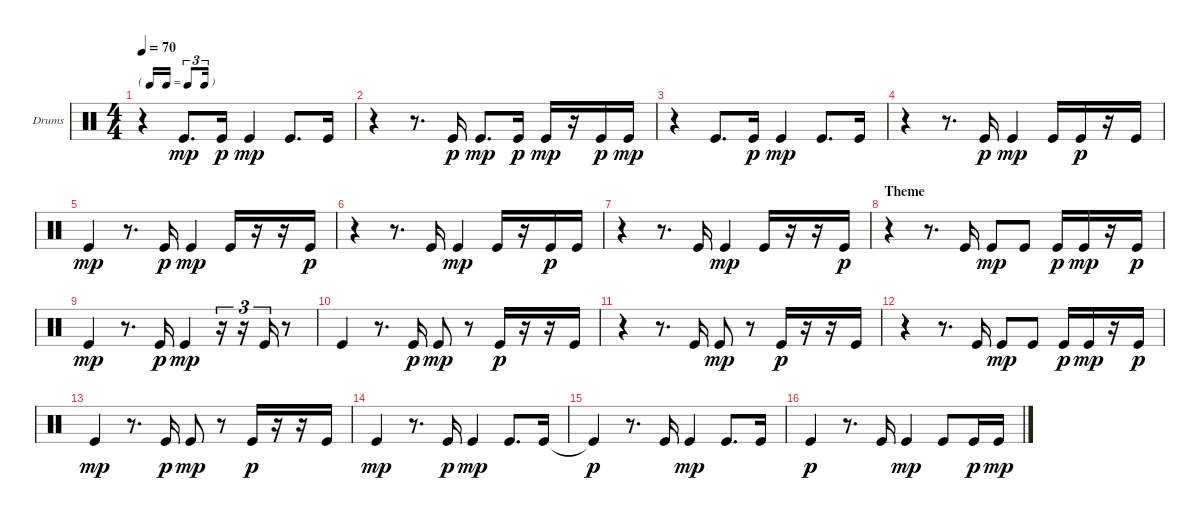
\bracketExtendMode groupsimilarinstruments
\firstSystemTrackNameOrientation horizontal
\otherSystemsTrackNameOrientation horizontal
\track ("Kick" "Drums") {instrument percussion}
\staff {score}
\articulation defaults
\ts (4 4)
\tf triplet16th
\tempo 70
\clef neutral
\ks aminor
r.4{dy mp} "Kick (hit)".8{d} "Kick (hit)".16{dy p} "Kick (hit)".4{dy mp} "Kick (hit)".8{d} "Kick (hit)".16 |
r.4 r.8{d} "Kick (hit)".16{dy p} "Kick (hit)".8{d dy mp} "Kick (hit)".16{dy p} "Kick (hit)".16{dy mp} r.16 "Kick (hit)".16{dy p} "Kick (hit)".16{dy mp} |
r.4 "Kick (hit)".8{d} "Kick (hit)".16{dy p} "Kick (hit)".4{dy mp} "Kick (hit)".8{d} "Kick (hit)".16 |
r.4 r.8{d} "Kick (hit)".16{dy p} "Kick (hit)".4{dy mp} "Kick (hit)".16 "Kick (hit)".16{dy p} r.16 "Kick (hit)".16 |
"Kick (hit)".4{dy mp} r.8{d} "Kick (hit)".16{dy p} "Kick (hit)".4{dy mp} "Kick (hit)".16 r.16 r.16 "Kick (hit)".16{dy p} |
r.4 r.8{d} "Kick (hit)".16 "Kick (hit)".4{dy mp} "Kick (hit)".16 r.16 "Kick (hit)".16{dy p} "Kick (hit)".16 |
r.4 r.8{d} "Kick (hit)".16 "Kick (hit)".4{dy mp} "Kick (hit)".16 r.16 r.16 "Kick (hit)".16{dy p} |
\section ("" "Theme")
r.4 r.8{d} "Kick (hit)".16 "Kick (hit)".8{dy mp} "Kick (hit)".8 "Kick (hit)".16{dy p} "Kick (hit)".16{dy mp} r.16 "Kick (hit)".16{dy p} |
"Kick (hit)".4{dy mp} r.8{d} "Kick (hit)".16{dy p} "Kick (hit)".4{dy mp} r.16{tu (3 2)} r.16{tu (3 2)} "Kick (hit)".16{tu (3 2)} r.8 |
"Kick (hit)".4 r.8{d} "Kick (hit)".16{dy p} "Kick (hit)".8{dy mp} r.8 "Kick (hit)".16{dy p} r.16 r.16 "Kick (hit)".16 |
r.4 r.8{d} "Kick (hit)".16 "Kick (hit)".8{dy mp} r.8 "Kick (hit)".16{dy p} r.16 r.16 "Kick (hit)".16 |
r.4 r.8{d} "Kick (hit)".16 "Kick (hit)".8{dy mp} "Kick (hit)".8 "Kick (hit)".16{dy p} "Kick (hit)".16{dy mp} r.16 "Kick (hit)".16{dy p} |
"Kick (hit)".4{dy mp} r.8{d} "Kick (hit)".16{dy p} "Kick (hit)".8{dy mp} r.8 "Kick (hit)".16{dy p} r.16 r.16 "Kick (hit)".16 |
"Kick (hit)".4{dy mp} r.8{d} "Kick (hit)".16{dy p} "Kick (hit)".4{dy mp} "Kick (hit)".8{d} "Kick (hit)".16 |
"Kick (hit)"{t}.4{dy p} r.8{d} "Kick (hit)".16 "Kick (hit)".4{dy mp} "Kick (hit)".8{d} "Kick (hit)".16 |
"Kick (hit)".4{dy p} r.8{d} "Kick (hit)".16 "Kick (hit)".4{dy mp} "Kick (hit)".8 "Kick (hit)".16{dy p} "Kick (hit)".16{dy mp}
